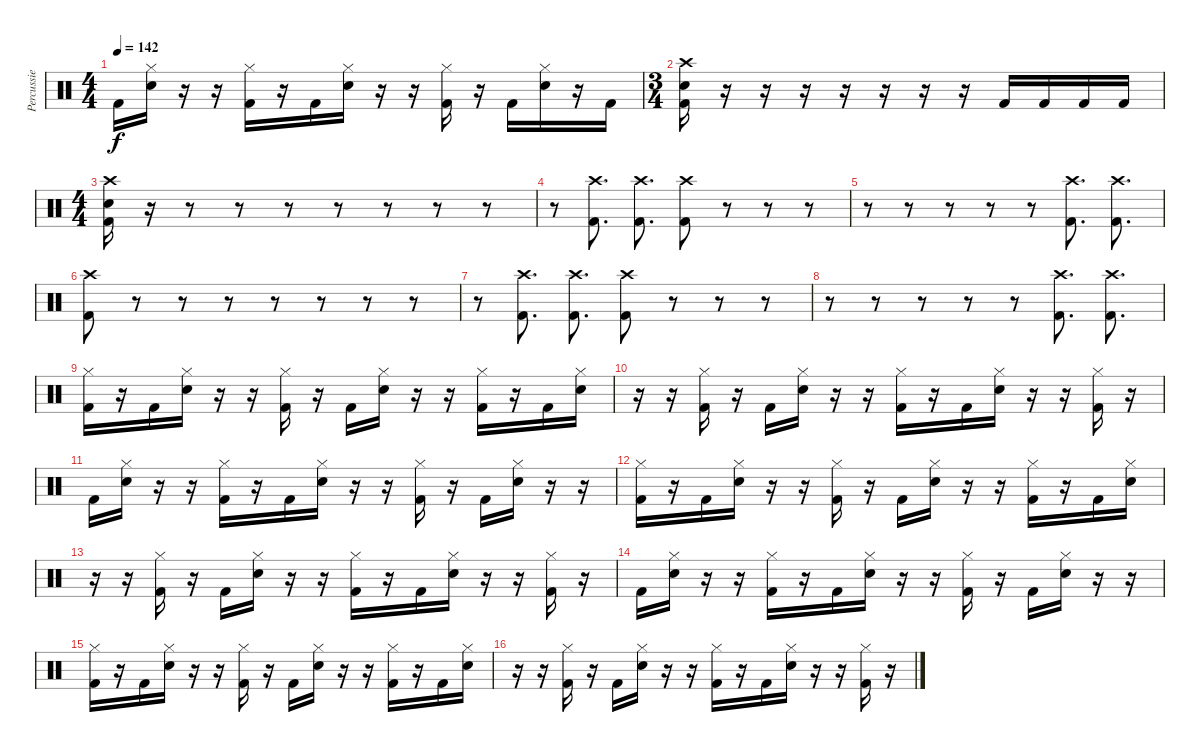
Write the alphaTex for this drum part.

\track ("Percussie" "Percussie") {instrument percussion}
\staff {score}
\articulation defaults
\ts (4 4)
\tempo 142
\clef neutral
\ks c "Kick (hit) 2".16{dy f}
("Hi-Hat (closed)" "Snare (hit) 2").16 r.16 r.16 ("Hi-Hat (closed)" "Kick (hit) 2").16 r.16 "Kick (hit) 2".16 ("Hi-Hat (closed)" "Snare (hit) 2").16 r.16 r.16 ("Hi-Hat (closed)" "Kick (hit) 2").16 r.16 "Kick (hit) 2".16 ("Hi-Hat (closed)" "Snare (hit) 2").16 r.16 "Kick (hit) 2".16 |
\ts (3 4)
("Crash high (hit)" "Snare (hit) 2" "Kick (hit) 2").16 r.16 r.16 r.16 r.16 r.16 r.16 r.16 "Kick (hit) 2".16 "Kick (hit) 2".16 "Kick (hit) 2".16 "Kick (hit) 2".16 |
\ts (4 4)
("Crash high (hit)" "Snare (hit) 2" "Kick (hit) 2").16 r.16 r.8 r.8 r.8 r.8 r.8 r.8 r.8 |
r.8 ("Crash high (hit)" "Kick (hit) 2").8{d} ("Crash high (hit)" "Kick (hit) 2").8{d} ("Crash high (hit)" "Kick (hit) 2").8 r.8 r.8 r.8 |
r.8 r.8 r.8 r.8 r.8 ("Crash high (hit)" "Kick (hit) 2").8{d} ("Crash high (hit)" "Kick (hit) 2").8{d} |
("Crash high (hit)" "Kick (hit) 2").8 r.8 r.8 r.8 r.8 r.8 r.8 r.8 |
r.8 ("Crash high (hit)" "Kick (hit) 2").8{d} ("Crash high (hit)" "Kick (hit) 2").8{d} ("Crash high (hit)" "Kick (hit) 2").8 r.8 r.8 r.8 |
r.8 r.8 r.8 r.8 r.8 ("Crash high (hit)" "Kick (hit) 2").8{d} ("Crash high (hit)" "Kick (hit) 2").8{d} |
("Hi-Hat (closed)" "Kick (hit) 2").16 r.16 "Kick (hit) 2".16 ("Hi-Hat (closed)" "Snare (hit) 2").16 r.16 r.16 ("Hi-Hat (closed)" "Kick (hit) 2").16 r.16 "Kick (hit) 2".16 ("Hi-Hat (closed)" "Snare (hit) 2").16 r.16 r.16 ("Hi-Hat (closed)" "Kick (hit) 2").16 r.16 "Kick (hit) 2".16 ("Hi-Hat (closed)" "Snare (hit) 2").16 |
r.16 r.16 ("Hi-Hat (closed)" "Kick (hit) 2").16 r.16 "Kick (hit) 2".16 ("Hi-Hat (closed)" "Snare (hit) 2").16 r.16 r.16 ("Hi-Hat (closed)" "Kick (hit) 2").16 r.16 "Kick (hit) 2".16 ("Hi-Hat (closed)" "Snare (hit) 2").16 r.16 r.16 ("Hi-Hat (closed)" "Kick (hit) 2").16 r.16 |
"Kick (hit) 2".16 ("Hi-Hat (closed)" "Snare (hit) 2").16 r.16 r.16 ("Hi-Hat (closed)" "Kick (hit) 2").16 r.16 "Kick (hit) 2".16 ("Hi-Hat (closed)" "Snare (hit) 2").16 r.16 r.16 ("Hi-Hat (closed)" "Kick (hit) 2").16 r.16 "Kick (hit) 2".16 ("Hi-Hat (closed)" "Snare (hit) 2").16 r.16 r.16 |
("Hi-Hat (closed)" "Kick (hit) 2").16 r.16 "Kick (hit) 2".16 ("Hi-Hat (closed)" "Snare (hit) 2").16 r.16 r.16 ("Hi-Hat (closed)" "Kick (hit) 2").16 r.16 "Kick (hit) 2".16 ("Hi-Hat (closed)" "Snare (hit) 2").16 r.16 r.16 ("Hi-Hat (closed)" "Kick (hit) 2").16 r.16 "Kick (hit) 2".16 ("Hi-Hat (closed)" "Snare (hit) 2").16 |
r.16 r.16 ("Hi-Hat (closed)" "Kick (hit) 2").16 r.16 "Kick (hit) 2".16 ("Hi-Hat (closed)" "Snare (hit) 2").16 r.16 r.16 ("Hi-Hat (closed)" "Kick (hit) 2").16 r.16 "Kick (hit) 2".16 ("Hi-Hat (closed)" "Snare (hit) 2").16 r.16 r.16 ("Hi-Hat (closed)" "Kick (hit) 2").16 r.16 |
"Kick (hit) 2".16 ("Hi-Hat (closed)" "Snare (hit) 2").16 r.16 r.16 ("Hi-Hat (closed)" "Kick (hit) 2").16 r.16 "Kick (hit) 2".16 ("Hi-Hat (closed)" "Snare (hit) 2").16 r.16 r.16 ("Hi-Hat (closed)" "Kick (hit) 2").16 r.16 "Kick (hit) 2".16 ("Hi-Hat (closed)" "Snare (hit) 2").16 r.16 r.16 |
("Hi-Hat (closed)" "Kick (hit) 2").16 r.16 "Kick (hit) 2".16 ("Hi-Hat (closed)" "Snare (hit) 2").16 r.16 r.16 ("Hi-Hat (closed)" "Kick (hit) 2").16 r.16 "Kick (hit) 2".16 ("Hi-Hat (closed)" "Snare (hit) 2").16 r.16 r.16 ("Hi-Hat (closed)" "Kick (hit) 2").16 r.16 "Kick (hit) 2".16 ("Hi-Hat (closed)" "Snare (hit) 2").16 |
r.16 r.16 ("Hi-Hat (closed)" "Kick (hit) 2").16 r.16 "Kick (hit) 2".16 ("Hi-Hat (closed)" "Snare (hit) 2").16 r.16 r.16 ("Hi-Hat (closed)" "Kick (hit) 2").16 r.16 "Kick (hit) 2".16 ("Hi-Hat (closed)" "Snare (hit) 2").16 r.16 r.16 ("Hi-Hat (closed)" "Kick (hit) 2").16 r.16
